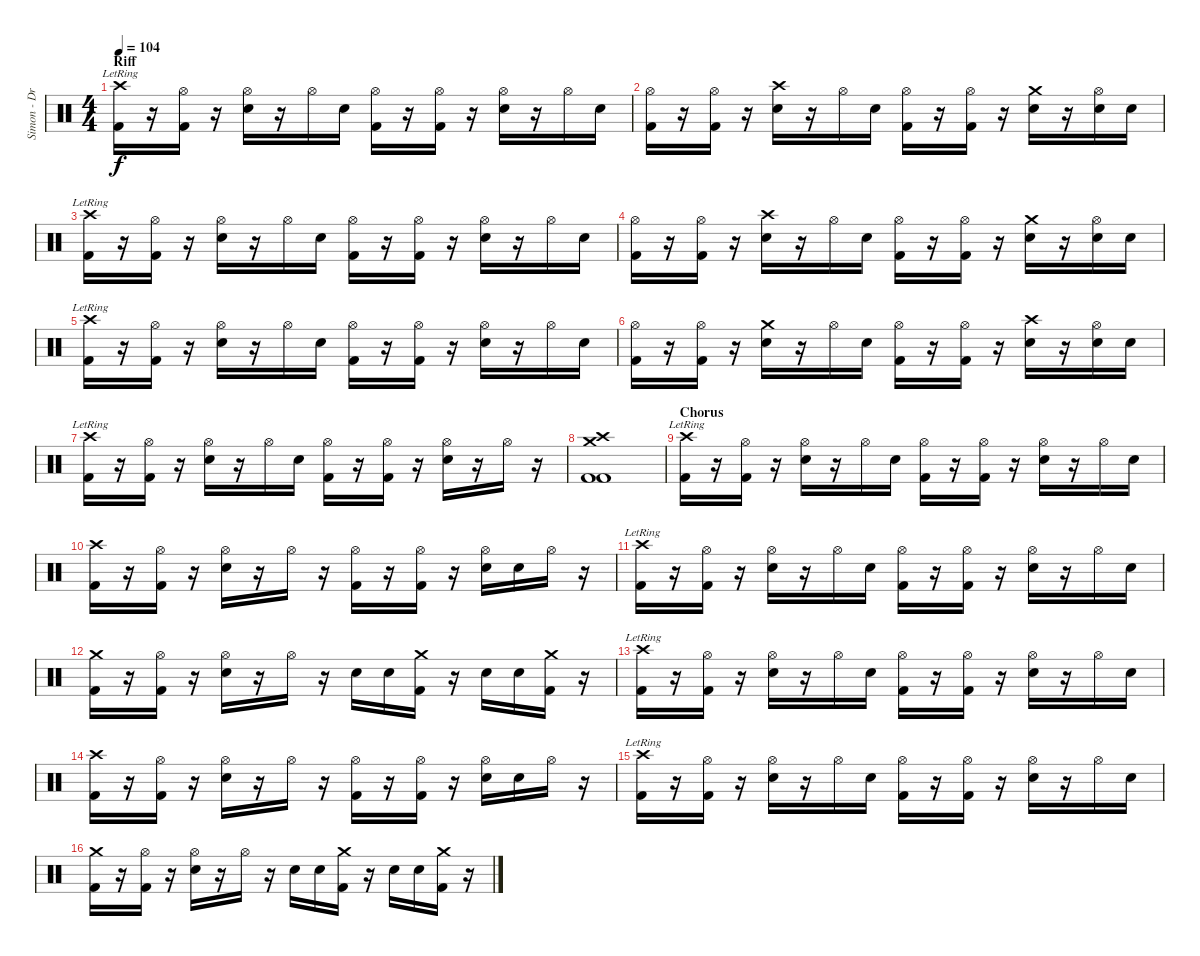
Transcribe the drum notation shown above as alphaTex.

\track ("Simon - Drums" "Simon - Dr") {instrument percussion}
\staff {score}
\articulation defaults
\ts (4 4)
\section ("" "Riff")
\tempo 104
\clef neutral
\ks c
("Crash high (hit)"{lr} "Kick (hit) 2").16{dy f} r.16 ("Hi-Hat (open)" "Kick (hit) 2").16 r.16 ("Hi-Hat (open)" "Electric Snare (hit)").16 r.16 "Hi-Hat (open)".16 "Electric Snare (hit)".16 ("Hi-Hat (open)" "Kick (hit) 2").16 r.16 ("Hi-Hat (open)" "Kick (hit) 2").16 r.16 ("Hi-Hat (open)" "Electric Snare (hit)").16 r.16 "Hi-Hat (open)".16 "Electric Snare (hit)".16 |
("Hi-Hat (open)" "Kick (hit) 2").16 r.16 ("Hi-Hat (open)" "Kick (hit) 2").16 r.16 ("Crash high (hit)" "Electric Snare (hit)").16 r.16 "Hi-Hat (open)".16 "Electric Snare (hit)".16 ("Hi-Hat (open)" "Kick (hit) 2").16 r.16 ("Hi-Hat (open)" "Kick (hit) 2").16 r.16 ("Crash medium (hit)" "Electric Snare (hit)").16 r.16 ("Hi-Hat (open)" "Electric Snare (hit)").16 "Electric Snare (hit)".16 |
("Crash high (hit)"{lr} "Kick (hit) 2").16 r.16 ("Hi-Hat (open)" "Kick (hit) 2").16 r.16 ("Hi-Hat (open)" "Electric Snare (hit)").16 r.16 "Hi-Hat (open)".16 "Electric Snare (hit)".16 ("Hi-Hat (open)" "Kick (hit) 2").16 r.16 ("Hi-Hat (open)" "Kick (hit) 2").16 r.16 ("Hi-Hat (open)" "Electric Snare (hit)").16 r.16 "Hi-Hat (open)".16 "Electric Snare (hit)".16 |
("Hi-Hat (open)" "Kick (hit) 2").16 r.16 ("Hi-Hat (open)" "Kick (hit) 2").16 r.16 ("Crash high (hit)" "Electric Snare (hit)").16 r.16 "Hi-Hat (open)".16 "Electric Snare (hit)".16 ("Hi-Hat (open)" "Kick (hit) 2").16 r.16 ("Hi-Hat (open)" "Kick (hit) 2").16 r.16 ("Crash medium (hit)" "Electric Snare (hit)").16 r.16 ("Hi-Hat (open)" "Electric Snare (hit)").16 "Electric Snare (hit)".16 |
("Crash high (hit)"{lr} "Kick (hit) 2").16 r.16 ("Hi-Hat (open)" "Kick (hit) 2").16 r.16 ("Hi-Hat (open)" "Electric Snare (hit)").16 r.16 "Hi-Hat (open)".16 "Electric Snare (hit)".16 ("Hi-Hat (open)" "Kick (hit) 2").16 r.16 ("Hi-Hat (open)" "Kick (hit) 2").16 r.16 ("Hi-Hat (open)" "Electric Snare (hit)").16 r.16 "Hi-Hat (open)".16 "Electric Snare (hit)".16 |
("Hi-Hat (open)" "Kick (hit) 2").16 r.16 ("Hi-Hat (open)" "Kick (hit) 2").16 r.16 ("Crash medium (hit)" "Electric Snare (hit)").16 r.16 "Hi-Hat (open)".16 "Electric Snare (hit)".16 ("Hi-Hat (open)" "Kick (hit) 2").16 r.16 ("Hi-Hat (open)" "Kick (hit) 2").16 r.16 ("Crash high (hit)" "Electric Snare (hit)").16 r.16 ("Hi-Hat (open)" "Electric Snare (hit)").16 "Electric Snare (hit)".16 |
("Crash high (hit)"{lr} "Kick (hit) 2").16 r.16 ("Hi-Hat (open)" "Kick (hit) 2").16 r.16 ("Hi-Hat (open)" "Electric Snare (hit)").16 r.16 "Hi-Hat (open)".16 "Electric Snare (hit)".16 ("Hi-Hat (open)" "Kick (hit) 2").16 r.16 ("Hi-Hat (open)" "Kick (hit) 2").16 r.16 ("Hi-Hat (open)" "Electric Snare (hit)").16 r.16 "Hi-Hat (open)".16 r.16 |
("Crash high (hit)" "Crash medium (hit)" "Kick (hit) 2" "Kick (hit) 2").1 |
\section ("" "Chorus")
("Crash high (hit)"{lr} "Kick (hit) 2").16 r.16 ("Hi-Hat (open)" "Kick (hit) 2").16 r.16 ("Hi-Hat (open)" "Electric Snare (hit)").16 r.16 "Hi-Hat (open)".16 "Electric Snare (hit)".16 ("Hi-Hat (open)" "Kick (hit) 2").16 r.16 ("Hi-Hat (open)" "Kick (hit) 2").16 r.16 ("Hi-Hat (open)" "Electric Snare (hit)").16 r.16 "Hi-Hat (open)".16 "Electric Snare (hit)".16 |
("Crash high (hit)" "Kick (hit) 2").16 r.16 ("Hi-Hat (open)" "Kick (hit) 2").16 r.16 ("Hi-Hat (open)" "Electric Snare (hit)").16 r.16 "Hi-Hat (open)".16 r.16 ("Hi-Hat (open)" "Kick (hit) 2").16 r.16 ("Hi-Hat (open)" "Kick (hit) 2").16 r.16 ("Hi-Hat (open)" "Electric Snare (hit)").16 "Electric Snare (hit)".16 "Hi-Hat (open)".16 r.16 |
("Crash high (hit)"{lr} "Kick (hit) 2").16 r.16 ("Hi-Hat (open)" "Kick (hit) 2").16 r.16 ("Hi-Hat (open)" "Electric Snare (hit)").16 r.16 "Hi-Hat (open)".16 "Electric Snare (hit)".16 ("Hi-Hat (open)" "Kick (hit) 2").16 r.16 ("Hi-Hat (open)" "Kick (hit) 2").16 r.16 ("Hi-Hat (open)" "Electric Snare (hit)").16 r.16 "Hi-Hat (open)".16 "Electric Snare (hit)".16 |
("Crash medium (hit)" "Kick (hit) 2").16 r.16 ("Hi-Hat (open)" "Kick (hit) 2").16 r.16 ("Hi-Hat (open)" "Electric Snare (hit)").16 r.16 "Hi-Hat (open)".16 r.16 "Electric Snare (hit)".16 "Electric Snare (hit)".16 ("Crash medium (hit)" "Kick (hit) 2").16 r.16 "Electric Snare (hit)".16 "Electric Snare (hit)".16 ("Crash medium (hit)" "Kick (hit) 2").16 r.16 |
("Crash high (hit)"{lr} "Kick (hit) 2").16 r.16 ("Hi-Hat (open)" "Kick (hit) 2").16 r.16 ("Hi-Hat (open)" "Electric Snare (hit)").16 r.16 "Hi-Hat (open)".16 "Electric Snare (hit)".16 ("Hi-Hat (open)" "Kick (hit) 2").16 r.16 ("Hi-Hat (open)" "Kick (hit) 2").16 r.16 ("Hi-Hat (open)" "Electric Snare (hit)").16 r.16 "Hi-Hat (open)".16 "Electric Snare (hit)".16 |
("Crash high (hit)" "Kick (hit) 2").16 r.16 ("Hi-Hat (open)" "Kick (hit) 2").16 r.16 ("Hi-Hat (open)" "Electric Snare (hit)").16 r.16 "Hi-Hat (open)".16 r.16 ("Hi-Hat (open)" "Kick (hit) 2").16 r.16 ("Hi-Hat (open)" "Kick (hit) 2").16 r.16 ("Hi-Hat (open)" "Electric Snare (hit)").16 "Electric Snare (hit)".16 "Hi-Hat (open)".16 r.16 |
("Crash high (hit)"{lr} "Kick (hit) 2").16 r.16 ("Hi-Hat (open)" "Kick (hit) 2").16 r.16 ("Hi-Hat (open)" "Electric Snare (hit)").16 r.16 "Hi-Hat (open)".16 "Electric Snare (hit)".16 ("Hi-Hat (open)" "Kick (hit) 2").16 r.16 ("Hi-Hat (open)" "Kick (hit) 2").16 r.16 ("Hi-Hat (open)" "Electric Snare (hit)").16 r.16 "Hi-Hat (open)".16 "Electric Snare (hit)".16 |
("Crash medium (hit)" "Kick (hit) 2").16 r.16 ("Hi-Hat (open)" "Kick (hit) 2").16 r.16 ("Hi-Hat (open)" "Electric Snare (hit)").16 r.16 "Hi-Hat (open)".16 r.16 "Electric Snare (hit)".16 "Electric Snare (hit)".16 ("Crash medium (hit)" "Kick (hit) 2").16 r.16 "Electric Snare (hit)".16 "Electric Snare (hit)".16 ("Crash medium (hit)" "Kick (hit) 2").16 r.16
